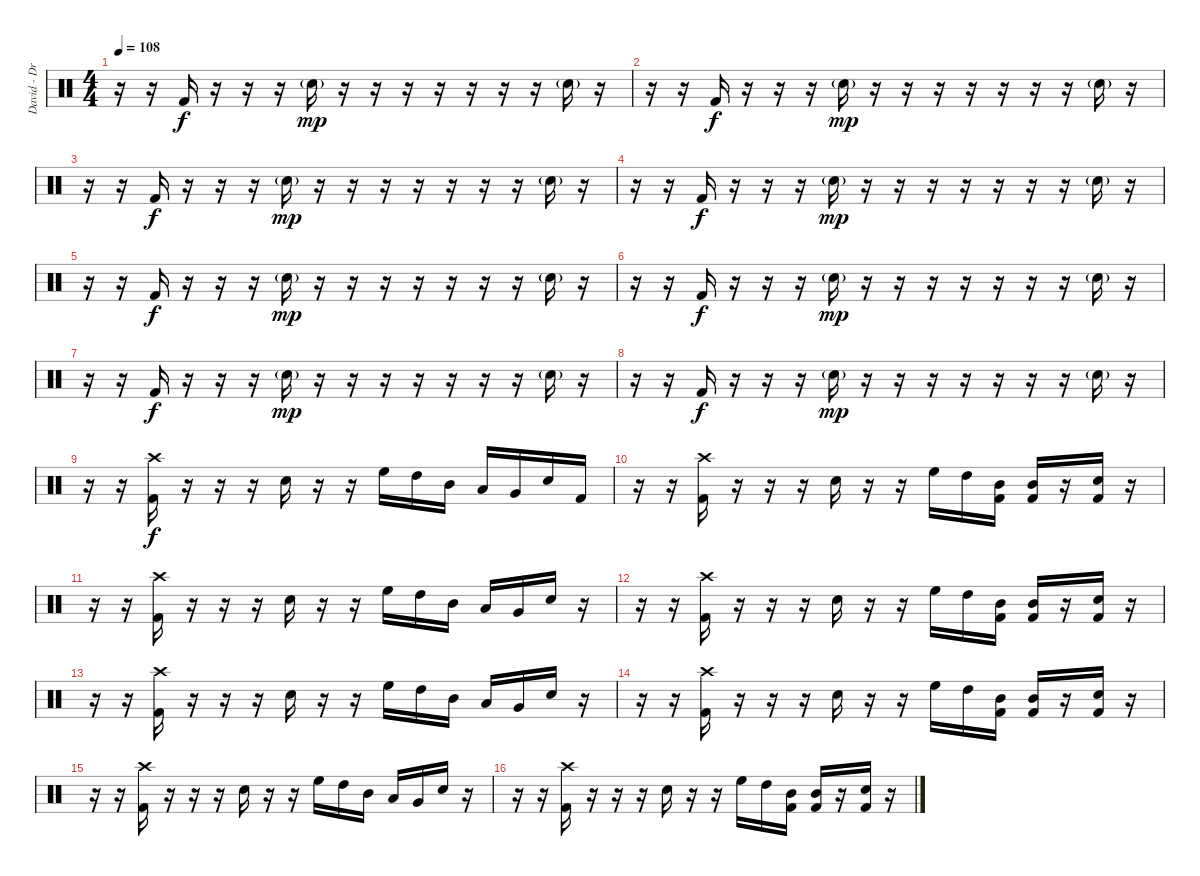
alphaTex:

\track ("David - Drums" "David - Dr") {instrument percussion}
\staff {score}
\articulation defaults
\ts (4 4)
\tempo 108
\clef neutral
\ks c
r.16{dy mp} r.16 "Kick (hit) 2".16{dy f} r.16 r.16 r.16 "Hand Clap (hit)"{g}.16{dy mp} r.16 r.16 r.16 r.16 r.16 r.16 r.16 "Hand Clap (hit)"{g}.16 r.16 |
r.16 r.16 "Kick (hit) 2".16{dy f} r.16 r.16 r.16 "Hand Clap (hit)"{g}.16{dy mp} r.16 r.16 r.16 r.16 r.16 r.16 r.16 "Hand Clap (hit)"{g}.16 r.16 |
r.16 r.16 "Kick (hit) 2".16{dy f} r.16 r.16 r.16 "Hand Clap (hit)"{g}.16{dy mp} r.16 r.16 r.16 r.16 r.16 r.16 r.16 "Hand Clap (hit)"{g}.16 r.16 |
r.16 r.16 "Kick (hit) 2".16{dy f} r.16 r.16 r.16 "Hand Clap (hit)"{g}.16{dy mp} r.16 r.16 r.16 r.16 r.16 r.16 r.16 "Hand Clap (hit)"{g}.16 r.16 |
r.16 r.16 "Kick (hit) 2".16{dy f} r.16 r.16 r.16 "Hand Clap (hit)"{g}.16{dy mp} r.16 r.16 r.16 r.16 r.16 r.16 r.16 "Hand Clap (hit)"{g}.16 r.16 |
r.16 r.16 "Kick (hit) 2".16{dy f} r.16 r.16 r.16 "Hand Clap (hit)"{g}.16{dy mp} r.16 r.16 r.16 r.16 r.16 r.16 r.16 "Hand Clap (hit)"{g}.16 r.16 |
r.16 r.16 "Kick (hit) 2".16{dy f} r.16 r.16 r.16 "Hand Clap (hit)"{g}.16{dy mp} r.16 r.16 r.16 r.16 r.16 r.16 r.16 "Hand Clap (hit)"{g}.16 r.16 |
r.16 r.16 "Kick (hit) 2".16{dy f} r.16 r.16 r.16 "Hand Clap (hit)"{g}.16{dy mp} r.16 r.16 r.16 r.16 r.16 r.16 r.16 "Hand Clap (hit)"{g}.16 r.16 |
r.16 r.16 ("Crash high (hit)" "Kick (hit) 2").16{dy f} r.16 r.16 r.16 "Snare (hit) 2".16 r.16 r.16 "High Floor Tom (hit)".16 "High Tom (hit)".16 "Mid Tom (hit)".16 "Low Tom (hit)".16 "Very Low Tom (hit)".16 "Electric Snare (hit)".16 "Kick (hit) 2".16 |
r.16 r.16 ("Crash high (hit)" "Kick (hit) 2").16 r.16 r.16 r.16 "Snare (hit) 2".16 r.16 r.16 "High Floor Tom (hit)".16 "High Tom (hit)".16 ("Mid Tom (hit)" "Kick (hit) 2").16 ("Mid Tom (hit)" "Kick (hit) 2").16 r.16 ("Electric Snare (hit)" "Kick (hit) 2").16 r.16 |
r.16 r.16 ("Crash high (hit)" "Kick (hit) 2").16 r.16 r.16 r.16 "Snare (hit) 2".16 r.16 r.16 "High Floor Tom (hit)".16 "High Tom (hit)".16 "Mid Tom (hit)".16 "Low Tom (hit)".16 "Very Low Tom (hit)".16 "Electric Snare (hit)".16 r.16 |
r.16 r.16 ("Crash high (hit)" "Kick (hit) 2").16 r.16 r.16 r.16 "Snare (hit) 2".16 r.16 r.16 "High Floor Tom (hit)".16 "High Tom (hit)".16 ("Mid Tom (hit)" "Kick (hit) 2").16 ("Mid Tom (hit)" "Kick (hit) 2").16 r.16 ("Electric Snare (hit)" "Kick (hit) 2").16 r.16 |
r.16 r.16 ("Crash high (hit)" "Kick (hit) 2").16 r.16 r.16 r.16 "Snare (hit) 2".16 r.16 r.16 "High Floor Tom (hit)".16 "High Tom (hit)".16 "Mid Tom (hit)".16 "Low Tom (hit)".16 "Very Low Tom (hit)".16 "Electric Snare (hit)".16 r.16 |
r.16 r.16 ("Crash high (hit)" "Kick (hit) 2").16 r.16 r.16 r.16 "Snare (hit) 2".16 r.16 r.16 "High Floor Tom (hit)".16 "High Tom (hit)".16 ("Mid Tom (hit)" "Kick (hit) 2").16 ("Mid Tom (hit)" "Kick (hit) 2").16 r.16 ("Electric Snare (hit)" "Kick (hit) 2").16 r.16 |
r.16 r.16 ("Crash high (hit)" "Kick (hit) 2").16 r.16 r.16 r.16 "Snare (hit) 2".16 r.16 r.16 "High Floor Tom (hit)".16 "High Tom (hit)".16 "Mid Tom (hit)".16 "Low Tom (hit)".16 "Very Low Tom (hit)".16 "Electric Snare (hit)".16 r.16 |
r.16 r.16 ("Crash high (hit)" "Kick (hit) 2").16 r.16 r.16 r.16 "Snare (hit) 2".16 r.16 r.16 "High Floor Tom (hit)".16 "High Tom (hit)".16 ("Mid Tom (hit)" "Kick (hit) 2").16 ("Mid Tom (hit)" "Kick (hit) 2").16 r.16 ("Electric Snare (hit)" "Kick (hit) 2").16 r.16
